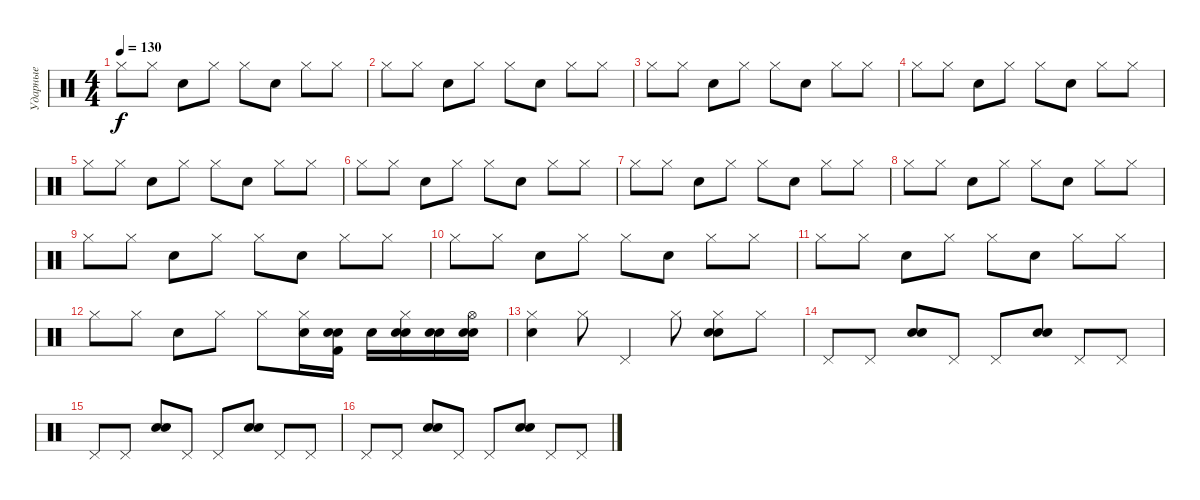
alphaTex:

\track ("Ударные" "Ударные") {instrument percussion}
\staff {score}
\articulation defaults
\ts (4 4)
\tempo 130
\clef neutral
\ks c "Hi-Hat (closed)".8{dy f} "Hi-Hat (closed)".8 "Electric Snare (hit)".8 "Hi-Hat (closed)".8 "Hi-Hat (closed)".8 "Snare (hit) 2".8 "Hi-Hat (closed)".8 "Hi-Hat (closed)".8
|
"Hi-Hat (closed)".8 "Hi-Hat (closed)".8 "Electric Snare (hit)".8 "Hi-Hat (closed)".8 "Hi-Hat (closed)".8 "Snare (hit) 2".8 "Hi-Hat (closed)".8 "Hi-Hat (closed)".8 |
"Hi-Hat (closed)".8 "Hi-Hat (closed)".8 "Electric Snare (hit)".8 "Hi-Hat (closed)".8 "Hi-Hat (closed)".8 "Snare (hit) 2".8 "Hi-Hat (closed)".8 "Hi-Hat (closed)".8 |
"Hi-Hat (closed)".8 "Hi-Hat (closed)".8 "Electric Snare (hit)".8 "Hi-Hat (closed)".8 "Hi-Hat (closed)".8 "Snare (hit) 2".8 "Hi-Hat (closed)".8 "Hi-Hat (closed)".8 |
"Hi-Hat (closed)".8 "Hi-Hat (closed)".8 "Electric Snare (hit)".8 "Hi-Hat (closed)".8 "Hi-Hat (closed)".8 "Snare (hit) 2".8 "Hi-Hat (closed)".8 "Hi-Hat (closed)".8 |
"Hi-Hat (closed)".8 "Hi-Hat (closed)".8 "Electric Snare (hit)".8 "Hi-Hat (closed)".8 "Hi-Hat (closed)".8 "Snare (hit) 2".8 "Hi-Hat (closed)".8 "Hi-Hat (closed)".8 |
"Hi-Hat (closed)".8 "Hi-Hat (closed)".8 "Electric Snare (hit)".8 "Hi-Hat (closed)".8 "Hi-Hat (closed)".8 "Snare (hit) 2".8 "Hi-Hat (closed)".8 "Hi-Hat (closed)".8 |
"Hi-Hat (closed)".8 "Hi-Hat (closed)".8 "Electric Snare (hit)".8 "Hi-Hat (closed)".8 "Hi-Hat (closed)".8 "Snare (hit) 2".8 "Hi-Hat (closed)".8 "Hi-Hat (closed)".8 |
"Hi-Hat (closed)".8 "Hi-Hat (closed)".8 "Electric Snare (hit)".8 "Hi-Hat (closed)".8 "Hi-Hat (closed)".8 "Snare (hit) 2".8 "Hi-Hat (closed)".8 "Hi-Hat (closed)".8 |
"Hi-Hat (closed)".8 "Hi-Hat (closed)".8 "Electric Snare (hit)".8 "Hi-Hat (closed)".8 "Hi-Hat (closed)".8 "Snare (hit) 2".8 "Hi-Hat (closed)".8 "Hi-Hat (closed)".8 |
"Hi-Hat (closed)".8 "Hi-Hat (closed)".8 "Electric Snare (hit)".8 "Hi-Hat (closed)".8 "Hi-Hat (closed)".8 "Snare (hit) 2".8 "Hi-Hat (closed)".8 "Hi-Hat (closed)".8 |
"Hi-Hat (closed)".8 "Hi-Hat (closed)".8 "Electric Snare (hit)".8 "Hi-Hat (closed)".8 "Hi-Hat (closed)".8 ("Snare (hit) 2" "Hi-Hat (closed)").16 ("Snare (hit) 2" "Kick (hit) 2" "Electric Snare (hit)").16 "Snare (hit) 2".16 ("Snare (hit) 2" "Hi-Hat (closed)" "Electric Snare (hit)").16 ("Snare (hit) 2" "Electric Snare (hit)").16 ("Snare (hit) 2" "Electric Snare (hit)" "Hi-Hat (open)").16 |
("Snare (hit) 2" "Hi-Hat (closed)").4 "Hi-Hat (closed)".8 "Pedal Hi-Hat (hit)".4 "Hi-Hat (closed)".8 ("Electric Snare (hit)" "Hi-Hat (closed)" "Snare (hit) 2").8 "Hi-Hat (closed)".8 |
"Pedal Hi-Hat (hit)".8 "Pedal Hi-Hat (hit)".8 ("Electric Snare (hit)" "Snare (hit) 2").8 "Pedal Hi-Hat (hit)".8 "Pedal Hi-Hat (hit)".8 ("Snare (hit) 2" "Electric Snare (hit)").8 "Pedal Hi-Hat (hit)".8 "Pedal Hi-Hat (hit)".8 |
"Pedal Hi-Hat (hit)".8 "Pedal Hi-Hat (hit)".8 ("Electric Snare (hit)" "Snare (hit) 2").8 "Pedal Hi-Hat (hit)".8 "Pedal Hi-Hat (hit)".8 ("Snare (hit) 2" "Electric Snare (hit)").8 "Pedal Hi-Hat (hit)".8 "Pedal Hi-Hat (hit)".8 |
"Pedal Hi-Hat (hit)".8 "Pedal Hi-Hat (hit)".8 ("Electric Snare (hit)" "Snare (hit) 2").8 "Pedal Hi-Hat (hit)".8 "Pedal Hi-Hat (hit)".8 ("Snare (hit) 2" "Electric Snare (hit)").8 "Pedal Hi-Hat (hit)".8 "Pedal Hi-Hat (hit)".8
